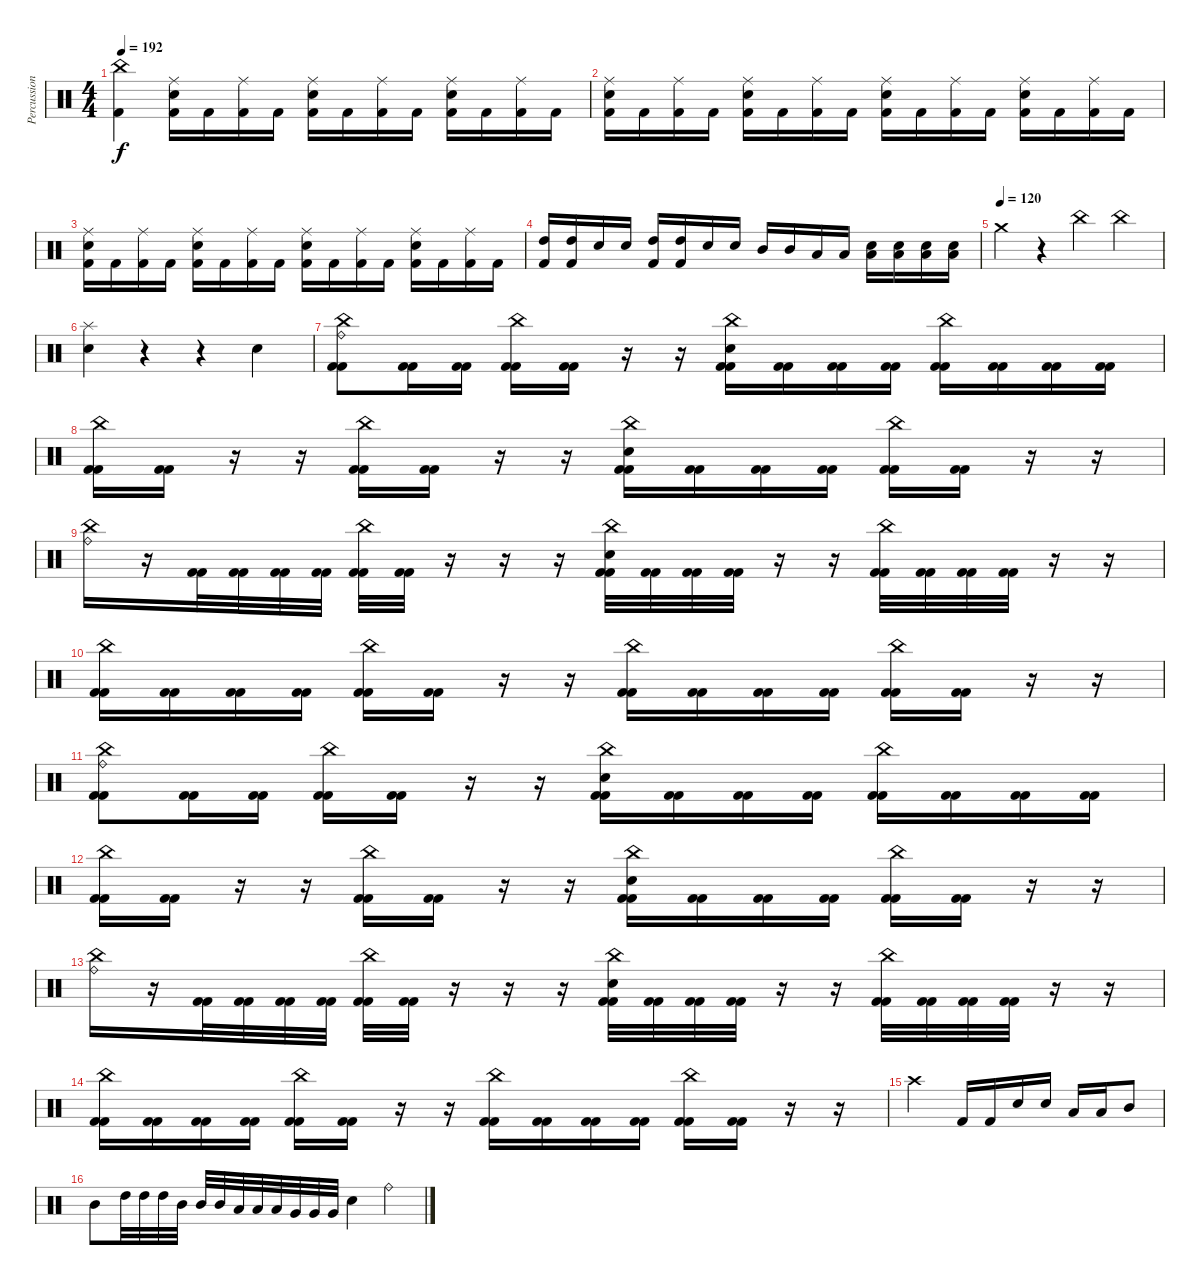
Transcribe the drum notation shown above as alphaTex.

\track ("Percussion" "Percussion") {instrument percussion}
\staff {score}
\articulation defaults
\ts (4 4)
\tempo 192
\clef neutral
\ks c
("China (hit)" "Kick (hit) 2").4{dy f} ("Ride (middle)" "Electric Snare (hit)" "Kick (hit) 2").16 "Kick (hit) 2".16 ("Ride (middle)" "Kick (hit) 2").16 "Kick (hit) 2".16 ("Ride (middle)" "Electric Snare (hit)" "Kick (hit) 2").16 "Kick (hit) 2".16 ("Ride (middle)" "Kick (hit) 2").16 "Kick (hit) 2".16 ("Ride (middle)" "Electric Snare (hit)" "Kick (hit) 2").16 "Kick (hit) 2".16 ("Ride (middle)" "Kick (hit) 2").16 "Kick (hit) 2".16 |
("Ride (middle)" "Electric Snare (hit)" "Kick (hit) 2").16 "Kick (hit) 2".16 ("Ride (middle)" "Kick (hit) 2").16 "Kick (hit) 2".16 ("Ride (middle)" "Electric Snare (hit)" "Kick (hit) 2").16 "Kick (hit) 2".16 ("Ride (middle)" "Kick (hit) 2").16 "Kick (hit) 2".16 ("Ride (middle)" "Electric Snare (hit)" "Kick (hit) 2").16 "Kick (hit) 2".16 ("Ride (middle)" "Kick (hit) 2").16 "Kick (hit) 2".16 ("Ride (middle)" "Electric Snare (hit)" "Kick (hit) 2").16 "Kick (hit) 2".16 ("Ride (middle)" "Kick (hit) 2").16 "Kick (hit) 2".16 |
("Ride (middle)" "Electric Snare (hit)" "Kick (hit) 2").16 "Kick (hit) 2".16 ("Ride (middle)" "Kick (hit) 2").16 "Kick (hit) 2".16 ("Ride (middle)" "Electric Snare (hit)" "Kick (hit) 2").16 "Kick (hit) 2".16 ("Ride (middle)" "Kick (hit) 2").16 "Kick (hit) 2".16 ("Ride (middle)" "Electric Snare (hit)" "Kick (hit) 2").16 "Kick (hit) 2".16 ("Ride (middle)" "Kick (hit) 2").16 "Kick (hit) 2".16 ("Ride (middle)" "Electric Snare (hit)" "Kick (hit) 2").16 "Kick (hit) 2".16 ("Ride (middle)" "Kick (hit) 2").16 "Kick (hit) 2".16 |
("High Tom (hit)" "Kick (hit) 2").16 ("High Tom (hit)" "Kick (hit) 2").16 "Electric Snare (hit)".16 "Electric Snare (hit)".16 ("High Tom (hit)" "Kick (hit) 2").16 ("High Tom (hit)" "Kick (hit) 2").16 "Electric Snare (hit)".16 "Electric Snare (hit)".16 "Mid Tom (hit)".16 "Mid Tom (hit)".16 "Low Tom (hit)".16 "Low Tom (hit)".16 ("Low Floor Tom (hit)" "Snare (hit) 2").16 ("Low Floor Tom (hit)" "Snare (hit) 2").16 ("Low Tom (hit)" "Snare (hit) 2").16 ("Low Tom (hit)" "Snare (hit) 2").16 |
\tempo (120)
"Crash medium (hit)".4 r.4 "China (hit)".4 "China (hit)".4 |
("Splash (hit)" "Electric Snare (hit)").4 r.4 r.4 "Electric Snare (hit)".4 |
("Kick (hit) 2" "China (hit)" "Ride (bell)" "Kick (hit) 2").8 ("Kick (hit) 2" "Kick (hit) 2").16 ("Kick (hit) 2" "Kick (hit) 2").16 ("Kick (hit) 2" "China (hit)" "Kick (hit) 2").16 ("Kick (hit) 2" "Kick (hit) 2").16 r.16 r.16 ("Kick (hit) 2" "China (hit)" "Electric Snare (hit)" "Kick (hit) 2").16 ("Kick (hit) 2" "Kick (hit) 2").16 ("Kick (hit) 2" "Kick (hit) 2").16 ("Kick (hit) 2" "Kick (hit) 2").16 ("Kick (hit) 2" "China (hit)" "Kick (hit) 2").16 ("Kick (hit) 2" "Kick (hit) 2").16 ("Kick (hit) 2" "Kick (hit) 2").16 ("Kick (hit) 2" "Kick (hit) 2").16 |
("Kick (hit) 2" "China (hit)" "Kick (hit) 2").16 ("Kick (hit) 2" "Kick (hit) 2").16 r.16 r.16 ("Kick (hit) 2" "China (hit)" "Kick (hit) 2").16 ("Kick (hit) 2" "Kick (hit) 2").16 r.16 r.16 ("Kick (hit) 2" "China (hit)" "Electric Snare (hit)" "Kick (hit) 2").16 ("Kick (hit) 2" "Kick (hit) 2").16 ("Kick (hit) 2" "Kick (hit) 2").16 ("Kick (hit) 2" "Kick (hit) 2").16 ("Kick (hit) 2" "China (hit)" "Kick (hit) 2").16 ("Kick (hit) 2" "Kick (hit) 2").16 r.16 r.16 |
("China (hit)" "Ride (bell)").16 r.16 ("Kick (hit) 2" "Kick (hit) 2").32 ("Kick (hit) 2" "Kick (hit) 2").32 ("Kick (hit) 2" "Kick (hit) 2").32 ("Kick (hit) 2" "Kick (hit) 2").32 ("Kick (hit) 2" "China (hit)" "Kick (hit) 2").32 ("Kick (hit) 2" "Kick (hit) 2").32 r.16 r.16 r.16 ("Kick (hit) 2" "China (hit)" "Electric Snare (hit)" "Kick (hit) 2").32 ("Kick (hit) 2" "Kick (hit) 2").32 ("Kick (hit) 2" "Kick (hit) 2").32 ("Kick (hit) 2" "Kick (hit) 2").32 r.16 r.16 ("Kick (hit) 2" "China (hit)" "Kick (hit) 2").32 ("Kick (hit) 2" "Kick (hit) 2").32 ("Kick (hit) 2" "Kick (hit) 2").32 ("Kick (hit) 2" "Kick (hit) 2").32 r.16 r.16 |
("Kick (hit) 2" "China (hit)" "Kick (hit) 2").16 ("Kick (hit) 2" "Kick (hit) 2").16 ("Kick (hit) 2" "Kick (hit) 2").16 ("Kick (hit) 2" "Kick (hit) 2").16 ("Kick (hit) 2" "China (hit)" "Kick (hit) 2").16 ("Kick (hit) 2" "Kick (hit) 2").16 r.16 r.16 ("Kick (hit) 2" "China (hit)" "Kick (hit) 2").16 ("Kick (hit) 2" "Kick (hit) 2").16 ("Kick (hit) 2" "Kick (hit) 2").16 ("Kick (hit) 2" "Kick (hit) 2").16 ("Kick (hit) 2" "China (hit)" "Kick (hit) 2").16 ("Kick (hit) 2" "Kick (hit) 2").16 r.16 r.16 |
("Kick (hit) 2" "China (hit)" "Ride (bell)" "Kick (hit) 2").8 ("Kick (hit) 2" "Kick (hit) 2").16 ("Kick (hit) 2" "Kick (hit) 2").16 ("Kick (hit) 2" "China (hit)" "Kick (hit) 2").16 ("Kick (hit) 2" "Kick (hit) 2").16 r.16 r.16 ("Kick (hit) 2" "China (hit)" "Electric Snare (hit)" "Kick (hit) 2").16 ("Kick (hit) 2" "Kick (hit) 2").16 ("Kick (hit) 2" "Kick (hit) 2").16 ("Kick (hit) 2" "Kick (hit) 2").16 ("Kick (hit) 2" "China (hit)" "Kick (hit) 2").16 ("Kick (hit) 2" "Kick (hit) 2").16 ("Kick (hit) 2" "Kick (hit) 2").16 ("Kick (hit) 2" "Kick (hit) 2").16 |
("Kick (hit) 2" "China (hit)" "Kick (hit) 2").16 ("Kick (hit) 2" "Kick (hit) 2").16 r.16 r.16 ("Kick (hit) 2" "China (hit)" "Kick (hit) 2").16 ("Kick (hit) 2" "Kick (hit) 2").16 r.16 r.16 ("Kick (hit) 2" "China (hit)" "Electric Snare (hit)" "Kick (hit) 2").16 ("Kick (hit) 2" "Kick (hit) 2").16 ("Kick (hit) 2" "Kick (hit) 2").16 ("Kick (hit) 2" "Kick (hit) 2").16 ("Kick (hit) 2" "China (hit)" "Kick (hit) 2").16 ("Kick (hit) 2" "Kick (hit) 2").16 r.16 r.16 |
("China (hit)" "Ride (bell)").16 r.16 ("Kick (hit) 2" "Kick (hit) 2").32 ("Kick (hit) 2" "Kick (hit) 2").32 ("Kick (hit) 2" "Kick (hit) 2").32 ("Kick (hit) 2" "Kick (hit) 2").32 ("Kick (hit) 2" "China (hit)" "Kick (hit) 2").32 ("Kick (hit) 2" "Kick (hit) 2").32 r.16 r.16 r.16 ("Kick (hit) 2" "China (hit)" "Electric Snare (hit)" "Kick (hit) 2").32 ("Kick (hit) 2" "Kick (hit) 2").32 ("Kick (hit) 2" "Kick (hit) 2").32 ("Kick (hit) 2" "Kick (hit) 2").32 r.16 r.16 ("Kick (hit) 2" "China (hit)" "Kick (hit) 2").32 ("Kick (hit) 2" "Kick (hit) 2").32 ("Kick (hit) 2" "Kick (hit) 2").32 ("Kick (hit) 2" "Kick (hit) 2").32 r.16 r.16 |
("Kick (hit) 2" "China (hit)" "Kick (hit) 2").16 ("Kick (hit) 2" "Kick (hit) 2").16 ("Kick (hit) 2" "Kick (hit) 2").16 ("Kick (hit) 2" "Kick (hit) 2").16 ("Kick (hit) 2" "China (hit)" "Kick (hit) 2").16 ("Kick (hit) 2" "Kick (hit) 2").16 r.16 r.16 ("Kick (hit) 2" "China (hit)" "Kick (hit) 2").16 ("Kick (hit) 2" "Kick (hit) 2").16 ("Kick (hit) 2" "Kick (hit) 2").16 ("Kick (hit) 2" "Kick (hit) 2").16 ("Kick (hit) 2" "China (hit)" "Kick (hit) 2").16 ("Kick (hit) 2" "Kick (hit) 2").16 r.16 r.16 |
"Crash high (hit)".2 "Kick (hit) 2".16 "Kick (hit) 2".16 "Electric Snare (hit)".16 "Electric Snare (hit)".16 "Low Tom (hit)".16 "Low Tom (hit)".16 "Mid Tom (hit)".8 |
"Mid Tom (hit)".8 "High Tom (hit)".32 "High Tom (hit)".32 "High Tom (hit)".32 "Mid Tom (hit)".32 "Mid Tom (hit)".32 "Mid Tom (hit)".32 "Low Tom (hit)".32 "Low Tom (hit)".32 "Low Tom (hit)".32 "Very Low Tom (hit)".32 "Very Low Tom (hit)".32 "Very Low Tom (hit)".32 "Electric Snare (hit)".4 "Ride (bell)".4
